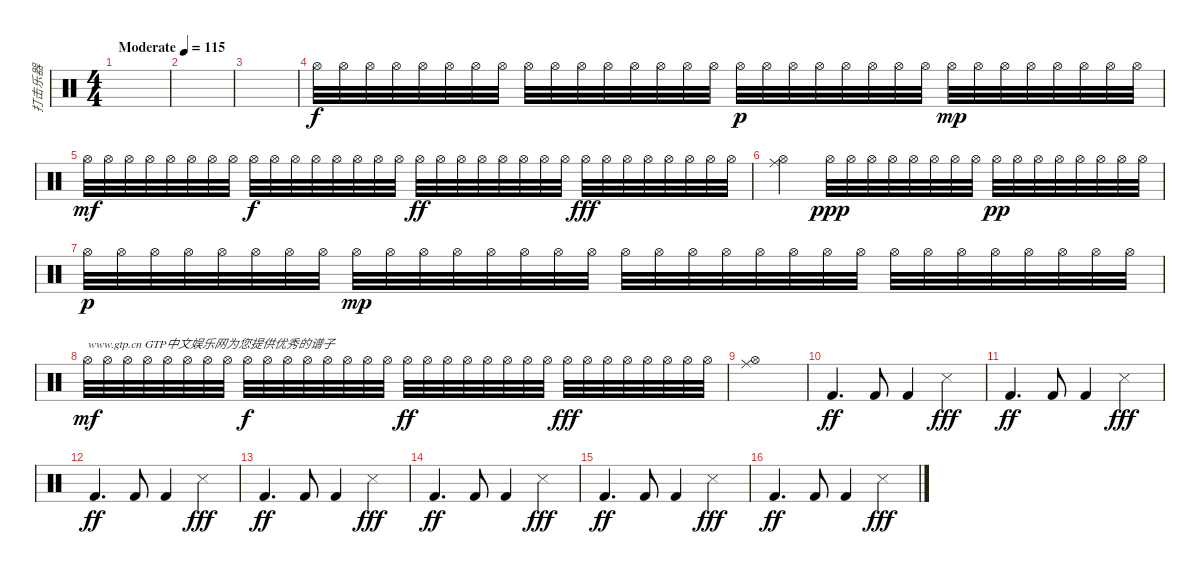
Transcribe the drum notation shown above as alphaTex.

\track ("打击乐器" "打击乐器") {instrument percussion}
\staff {score}
\articulation defaults
\ts (4 4)
\tempo (115 "Moderate")
\clef neutral
\ks c
|
|
|
"Hi-Hat (open)".32 "Hi-Hat (open)".32 "Hi-Hat (open)".32 "Hi-Hat (open)".32 "Hi-Hat (open)".32 "Hi-Hat (open)".32 "Hi-Hat (open)".32 "Hi-Hat (open)".32 "Hi-Hat (open)".32 "Hi-Hat (open)".32 "Hi-Hat (open)".32 "Hi-Hat (open)".32 "Hi-Hat (open)".32 "Hi-Hat (open)".32 "Hi-Hat (open)".32 "Hi-Hat (open)".32 "Hi-Hat (open)".32{dy p} "Hi-Hat (open)".32 "Hi-Hat (open)".32 "Hi-Hat (open)".32 "Hi-Hat (open)".32 "Hi-Hat (open)".32 "Hi-Hat (open)".32 "Hi-Hat (open)".32 "Hi-Hat (open)".32{dy mp} "Hi-Hat (open)".32 "Hi-Hat (open)".32 "Hi-Hat (open)".32 "Hi-Hat (open)".32 "Hi-Hat (open)".32 "Hi-Hat (open)".32 "Hi-Hat (open)".32 |
"Hi-Hat (open)".32{dy mf} "Hi-Hat (open)".32 "Hi-Hat (open)".32 "Hi-Hat (open)".32 "Hi-Hat (open)".32 "Hi-Hat (open)".32 "Hi-Hat (open)".32 "Hi-Hat (open)".32 "Hi-Hat (open)".32{dy f} "Hi-Hat (open)".32 "Hi-Hat (open)".32 "Hi-Hat (open)".32 "Hi-Hat (open)".32 "Hi-Hat (open)".32 "Hi-Hat (open)".32 "Hi-Hat (open)".32 "Hi-Hat (open)".32{dy ff} "Hi-Hat (open)".32 "Hi-Hat (open)".32 "Hi-Hat (open)".32 "Hi-Hat (open)".32 "Hi-Hat (open)".32 "Hi-Hat (open)".32 "Hi-Hat (open)".32 "Hi-Hat (open)".32{dy fff} "Hi-Hat (open)".32 "Hi-Hat (open)".32 "Hi-Hat (open)".32 "Hi-Hat (open)".32 "Hi-Hat (open)".32 "Hi-Hat (open)".32 "Hi-Hat (open)".32 |
("Ride (middle)" "Hi-Hat (open)").2{bd 480} "Hi-Hat (open)".32{dy ppp} "Hi-Hat (open)".32 "Hi-Hat (open)".32 "Hi-Hat (open)".32 "Hi-Hat (open)".32 "Hi-Hat (open)".32 "Hi-Hat (open)".32 "Hi-Hat (open)".32 "Hi-Hat (open)".32{dy pp} "Hi-Hat (open)".32 "Hi-Hat (open)".32 "Hi-Hat (open)".32 "Hi-Hat (open)".32 "Hi-Hat (open)".32 "Hi-Hat (open)".32 "Hi-Hat (open)".32 |
"Hi-Hat (open)".32{dy p} "Hi-Hat (open)".32 "Hi-Hat (open)".32 "Hi-Hat (open)".32 "Hi-Hat (open)".32 "Hi-Hat (open)".32 "Hi-Hat (open)".32 "Hi-Hat (open)".32 "Hi-Hat (open)".32{dy mp} "Hi-Hat (open)".32 "Hi-Hat (open)".32 "Hi-Hat (open)".32 "Hi-Hat (open)".32 "Hi-Hat (open)".32 "Hi-Hat (open)".32 "Hi-Hat (open)".32 "Hi-Hat (open)".32 "Hi-Hat (open)".32 "Hi-Hat (open)".32 "Hi-Hat (open)".32 "Hi-Hat (open)".32 "Hi-Hat (open)".32 "Hi-Hat (open)".32 "Hi-Hat (open)".32 "Hi-Hat (open)".32 "Hi-Hat (open)".32 "Hi-Hat (open)".32 "Hi-Hat (open)".32 "Hi-Hat (open)".32 "Hi-Hat (open)".32 "Hi-Hat (open)".32 "Hi-Hat (open)".32 |
"Hi-Hat (open)".32{txt "www.gtp.cn GTP中文娱乐网为您提供优秀的谱子" dy mf} "Hi-Hat (open)".32 "Hi-Hat (open)".32 "Hi-Hat (open)".32 "Hi-Hat (open)".32 "Hi-Hat (open)".32 "Hi-Hat (open)".32 "Hi-Hat (open)".32 "Hi-Hat (open)".32{dy f} "Hi-Hat (open)".32 "Hi-Hat (open)".32 "Hi-Hat (open)".32 "Hi-Hat (open)".32 "Hi-Hat (open)".32 "Hi-Hat (open)".32 "Hi-Hat (open)".32 "Hi-Hat (open)".32{dy ff} "Hi-Hat (open)".32 "Hi-Hat (open)".32 "Hi-Hat (open)".32 "Hi-Hat (open)".32 "Hi-Hat (open)".32 "Hi-Hat (open)".32 "Hi-Hat (open)".32 "Hi-Hat (open)".32{dy fff} "Hi-Hat (open)".32 "Hi-Hat (open)".32 "Hi-Hat (open)".32 "Hi-Hat (open)".32 "Hi-Hat (open)".32 "Hi-Hat (open)".32 "Hi-Hat (open)".32 |
("Ride (middle)" "Hi-Hat (open)").1 |
"Kick (hit) 2".4{d dy ff} "Kick (hit) 2".8 "Kick (hit) 2".4 "Snare (side stick) 3".4{dy fff} |
"Kick (hit) 2".4{d dy ff} "Kick (hit) 2".8 "Kick (hit) 2".4 "Snare (side stick) 3".4{dy fff} |
"Kick (hit) 2".4{d dy ff} "Kick (hit) 2".8 "Kick (hit) 2".4 "Snare (side stick) 3".4{dy fff} |
"Kick (hit) 2".4{d dy ff} "Kick (hit) 2".8 "Kick (hit) 2".4 "Snare (side stick) 3".4{dy fff} |
"Kick (hit) 2".4{d dy ff} "Kick (hit) 2".8 "Kick (hit) 2".4 "Snare (side stick) 3".4{dy fff} |
"Kick (hit) 2".4{d dy ff} "Kick (hit) 2".8 "Kick (hit) 2".4 "Snare (side stick) 3".4{dy fff} |
"Kick (hit) 2".4{d dy ff} "Kick (hit) 2".8 "Kick (hit) 2".4 "Snare (side stick) 3".4{dy fff}
